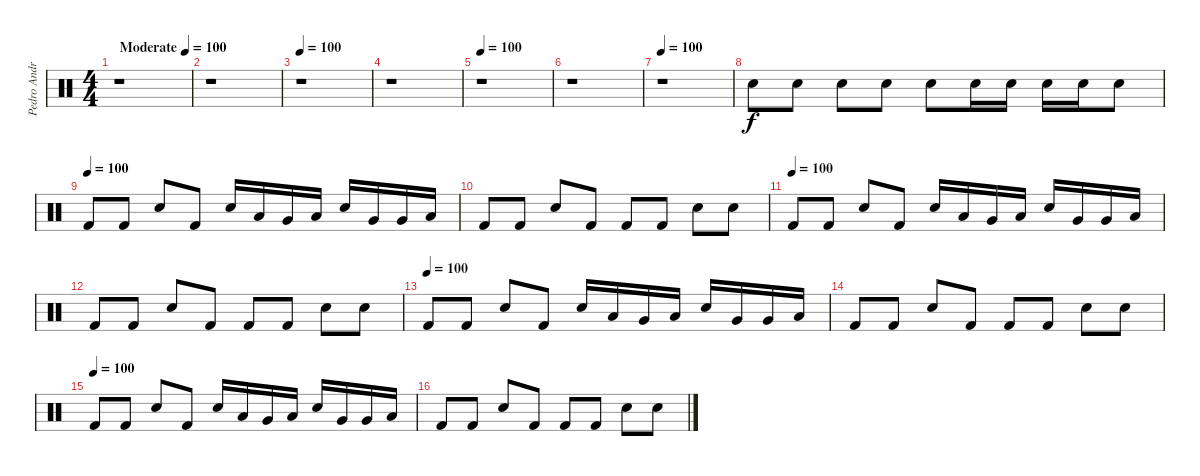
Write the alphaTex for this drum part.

\track ("Pedro Andreu" "Pedro Andr") {instrument percussion}
\staff {score}
\articulation defaults
\ts (4 4)
\tempo (100 "Moderate")
\clef neutral
\ks c
r.1{dy f} |
r.1 |
\tempo 100
r.1 |
r.1 |
\tempo 100
r.1 |
r.1 |
\tempo 100
r.1 |
"Snare (hit) 2".8 "Snare (hit) 2".8 "Snare (hit) 2".8 "Snare (hit) 2".8 "Snare (hit) 2".8 "Snare (hit) 2".16 "Snare (hit) 2".16 "Snare (hit) 2".16 "Snare (hit) 2".16 "Snare (hit) 2".8 |
\tempo (100)
"Kick (hit) 2".8 "Kick (hit) 2".8 "Snare (hit) 2".8 "Kick (hit) 2".8 "Snare (hit) 2".16 "Low Tom (hit)".16 "Very Low Tom (hit)".16 "Low Floor Tom (hit)".16 "Snare (hit) 2".16 "Very Low Tom (hit)".16 "Very Low Tom (hit)".16 "Low Floor Tom (hit)".16 |
"Kick (hit) 2".8 "Kick (hit) 2".8 "Snare (hit) 2".8 "Kick (hit) 2".8 "Kick (hit) 2".8 "Kick (hit) 2".8 "Snare (hit) 2".8 "Snare (hit) 2".8 |
\tempo (100)
"Kick (hit) 2".8 "Kick (hit) 2".8 "Snare (hit) 2".8 "Kick (hit) 2".8 "Snare (hit) 2".16 "Low Tom (hit)".16 "Very Low Tom (hit)".16 "Low Floor Tom (hit)".16 "Snare (hit) 2".16 "Very Low Tom (hit)".16 "Very Low Tom (hit)".16 "Low Floor Tom (hit)".16 |
"Kick (hit) 2".8 "Kick (hit) 2".8 "Snare (hit) 2".8 "Kick (hit) 2".8 "Kick (hit) 2".8 "Kick (hit) 2".8 "Snare (hit) 2".8 "Snare (hit) 2".8 |
\tempo (100)
"Kick (hit) 2".8 "Kick (hit) 2".8 "Snare (hit) 2".8 "Kick (hit) 2".8 "Snare (hit) 2".16 "Low Tom (hit)".16 "Very Low Tom (hit)".16 "Low Floor Tom (hit)".16 "Snare (hit) 2".16 "Very Low Tom (hit)".16 "Very Low Tom (hit)".16 "Low Floor Tom (hit)".16 |
"Kick (hit) 2".8 "Kick (hit) 2".8 "Snare (hit) 2".8 "Kick (hit) 2".8 "Kick (hit) 2".8 "Kick (hit) 2".8 "Snare (hit) 2".8 "Snare (hit) 2".8 |
\tempo (100)
"Kick (hit) 2".8 "Kick (hit) 2".8 "Snare (hit) 2".8 "Kick (hit) 2".8 "Snare (hit) 2".16 "Low Tom (hit)".16 "Very Low Tom (hit)".16 "Low Floor Tom (hit)".16 "Snare (hit) 2".16 "Very Low Tom (hit)".16 "Very Low Tom (hit)".16 "Low Floor Tom (hit)".16 |
"Kick (hit) 2".8 "Kick (hit) 2".8 "Snare (hit) 2".8 "Kick (hit) 2".8 "Kick (hit) 2".8 "Kick (hit) 2".8 "Snare (hit) 2".8 "Snare (hit) 2".8
